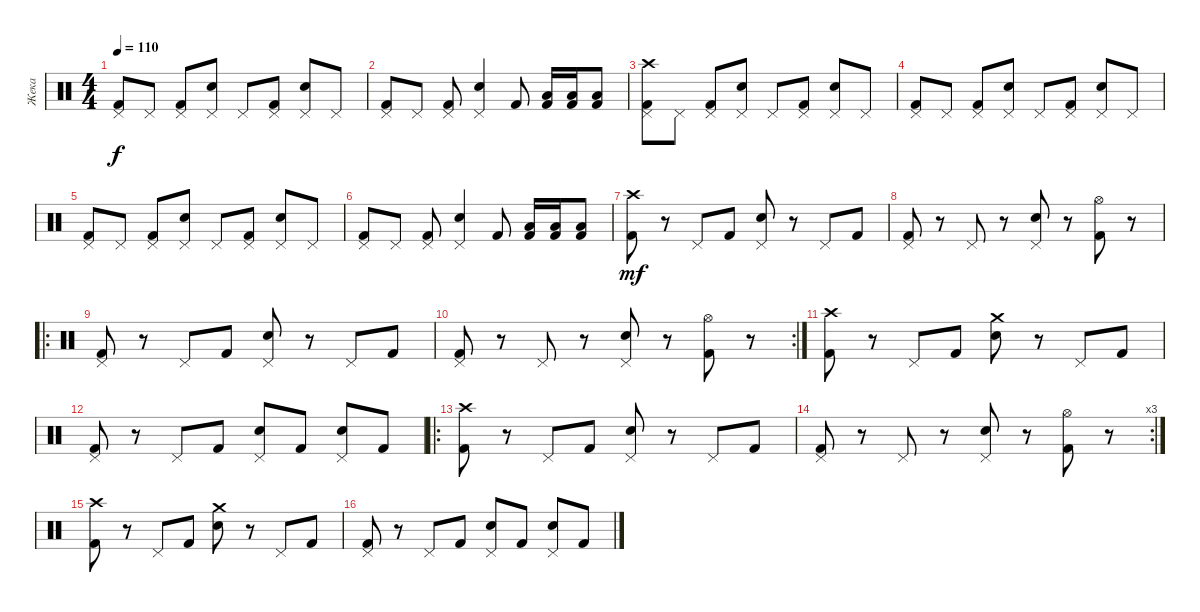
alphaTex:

\track ("Жека" "Жека") {instrument percussion}
\staff {score}
\articulation defaults
\ts (4 4)
\tempo 110
\clef neutral
\ks c
("Pedal Hi-Hat (hit)" "Kick (hit) 2").8{dy f} "Pedal Hi-Hat (hit)".8 ("Pedal Hi-Hat (hit)" "Kick (hit) 2").8 ("Pedal Hi-Hat (hit)" "Snare (hit) 2").8 "Pedal Hi-Hat (hit)".8 ("Pedal Hi-Hat (hit)" "Kick (hit) 2").8 ("Pedal Hi-Hat (hit)" "Snare (hit) 2").8 "Pedal Hi-Hat (hit)".8 |
("Pedal Hi-Hat (hit)" "Kick (hit) 2").8 "Pedal Hi-Hat (hit)".8 ("Pedal Hi-Hat (hit)" "Kick (hit) 2").8 ("Pedal Hi-Hat (hit)" "Snare (hit) 2").4 "Kick (hit) 2".8 ("Low Tom (hit)" "Kick (hit) 2").16 ("Low Tom (hit)" "Kick (hit) 2").16 ("Low Floor Tom (hit)" "Kick (hit) 2").8 |
("Pedal Hi-Hat (hit)" "Kick (hit) 2" "Crash high (hit)").8 "Pedal Hi-Hat (hit)".8 ("Pedal Hi-Hat (hit)" "Kick (hit) 2").8 ("Pedal Hi-Hat (hit)" "Snare (hit) 2").8 "Pedal Hi-Hat (hit)".8 ("Pedal Hi-Hat (hit)" "Kick (hit) 2").8 ("Pedal Hi-Hat (hit)" "Snare (hit) 2").8 "Pedal Hi-Hat (hit)".8 |
("Pedal Hi-Hat (hit)" "Kick (hit) 2").8 "Pedal Hi-Hat (hit)".8 ("Pedal Hi-Hat (hit)" "Kick (hit) 2").8 ("Pedal Hi-Hat (hit)" "Snare (hit) 2").8 "Pedal Hi-Hat (hit)".8 ("Pedal Hi-Hat (hit)" "Kick (hit) 2").8 ("Pedal Hi-Hat (hit)" "Snare (hit) 2").8 "Pedal Hi-Hat (hit)".8 |
("Pedal Hi-Hat (hit)" "Kick (hit) 2").8 "Pedal Hi-Hat (hit)".8 ("Pedal Hi-Hat (hit)" "Kick (hit) 2").8 ("Pedal Hi-Hat (hit)" "Snare (hit) 2").8 "Pedal Hi-Hat (hit)".8 ("Pedal Hi-Hat (hit)" "Kick (hit) 2").8 ("Pedal Hi-Hat (hit)" "Snare (hit) 2").8 "Pedal Hi-Hat (hit)".8 |
("Pedal Hi-Hat (hit)" "Kick (hit) 2").8 "Pedal Hi-Hat (hit)".8 ("Pedal Hi-Hat (hit)" "Kick (hit) 2").8 ("Pedal Hi-Hat (hit)" "Snare (hit) 2").4 "Kick (hit) 2".8 ("Low Tom (hit)" "Kick (hit) 2").16 ("Low Tom (hit)" "Kick (hit) 2").16 ("Low Floor Tom (hit)" "Kick (hit) 2").8 |
("Crash high (hit)" "Kick (hit) 2").8{dy mf} r.8 "Pedal Hi-Hat (hit)".8 "Kick (hit) 2".8 ("Pedal Hi-Hat (hit)" "Snare (hit) 2").8 r.8 "Pedal Hi-Hat (hit)".8 "Kick (hit) 2".8 |
("Pedal Hi-Hat (hit)" "Kick (hit) 2").8 r.8 "Pedal Hi-Hat (hit)".8 r.8 ("Pedal Hi-Hat (hit)" "Snare (hit) 2").8 r.8 ("Hi-Hat (open)" "Kick (hit) 2").8 r.8 |
\ro
("Pedal Hi-Hat (hit)" "Kick (hit) 2").8 r.8 "Pedal Hi-Hat (hit)".8 "Kick (hit) 2".8 ("Pedal Hi-Hat (hit)" "Snare (hit) 2").8 r.8 "Pedal Hi-Hat (hit)".8 "Kick (hit) 2".8 |
\rc 2
("Pedal Hi-Hat (hit)" "Kick (hit) 2").8 r.8 "Pedal Hi-Hat (hit)".8 r.8 ("Pedal Hi-Hat (hit)" "Snare (hit) 2").8 r.8 ("Hi-Hat (open)" "Kick (hit) 2").8 r.8 |
("Crash high (hit)" "Kick (hit) 2").8 r.8 "Pedal Hi-Hat (hit)".8 "Kick (hit) 2".8 ("Crash medium (hit)" "Snare (hit) 2").8 r.8 "Pedal Hi-Hat (hit)".8 "Kick (hit) 2".8 |
("Pedal Hi-Hat (hit)" "Kick (hit) 2").8 r.8 "Pedal Hi-Hat (hit)".8 "Kick (hit) 2".8 ("Pedal Hi-Hat (hit)" "Snare (hit) 2").8 "Kick (hit) 2".8 ("Pedal Hi-Hat (hit)" "Snare (hit) 2").8 "Kick (hit) 2".8 |
\ro
("Crash high (hit)" "Kick (hit) 2").8 r.8 "Pedal Hi-Hat (hit)".8 "Kick (hit) 2".8 ("Pedal Hi-Hat (hit)" "Snare (hit) 2").8 r.8 "Pedal Hi-Hat (hit)".8 "Kick (hit) 2".8 |
\rc 3
("Pedal Hi-Hat (hit)" "Kick (hit) 2").8 r.8 "Pedal Hi-Hat (hit)".8 r.8 ("Pedal Hi-Hat (hit)" "Snare (hit) 2").8 r.8 ("Hi-Hat (open)" "Kick (hit) 2").8 r.8 |
("Crash high (hit)" "Kick (hit) 2").8 r.8 "Pedal Hi-Hat (hit)".8 "Kick (hit) 2".8 ("Crash medium (hit)" "Snare (hit) 2").8 r.8 "Pedal Hi-Hat (hit)".8 "Kick (hit) 2".8 |
("Pedal Hi-Hat (hit)" "Kick (hit) 2").8 r.8 "Pedal Hi-Hat (hit)".8 "Kick (hit) 2".8 ("Pedal Hi-Hat (hit)" "Snare (hit) 2").8 "Kick (hit) 2".8 ("Pedal Hi-Hat (hit)" "Snare (hit) 2").8 "Kick (hit) 2".8
